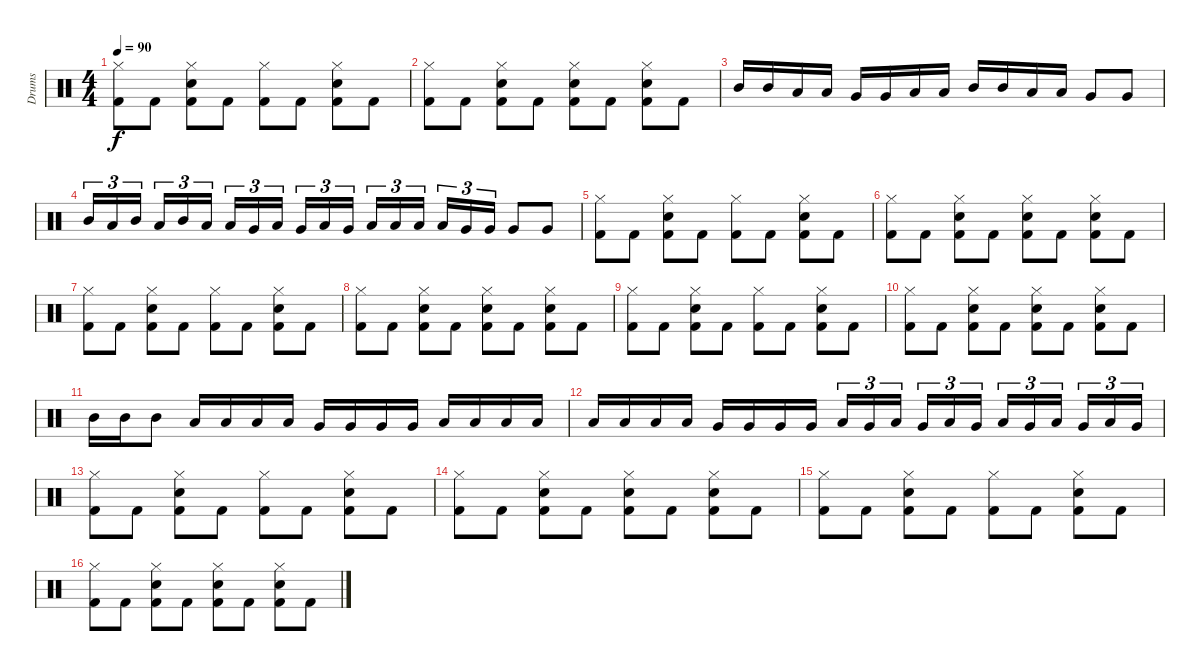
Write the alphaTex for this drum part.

\track ("Drums" "Drums") {instrument percussion}
\staff {score}
\articulation defaults
\ts (4 4)
\tempo 90
\clef neutral
\ks c
("Hi-Hat (closed)" "Kick (hit) 2").8{dy f} "Kick (hit) 2".8 ("Hi-Hat (closed)" "Kick (hit) 2" "Snare (hit) 2").8 "Kick (hit) 2".8 ("Hi-Hat (closed)" "Kick (hit) 2").8 "Kick (hit) 2".8 ("Hi-Hat (closed)" "Kick (hit) 2" "Snare (hit) 2").8 "Kick (hit) 2".8 |
("Hi-Hat (closed)" "Kick (hit) 2").8 "Kick (hit) 2".8 ("Hi-Hat (closed)" "Kick (hit) 2" "Snare (hit) 2").8 "Kick (hit) 2".8 ("Hi-Hat (closed)" "Kick (hit) 2" "Snare (hit) 2").8 "Kick (hit) 2".8 ("Hi-Hat (closed)" "Kick (hit) 2" "Snare (hit) 2").8 "Kick (hit) 2".8 |
"Mid Tom (hit)".16 "Mid Tom (hit)".16 "Low Tom (hit)".16 "Low Tom (hit)".16 "Very Low Tom (hit)".16 "Very Low Tom (hit)".16 "Low Tom (hit)".16 "Low Tom (hit)".16 "Mid Tom (hit)".16 "Mid Tom (hit)".16 "Low Tom (hit)".16 "Low Tom (hit)".16 "Very Low Tom (hit)".8 "Very Low Tom (hit)".8 |
"Mid Tom (hit)".16{tu (3 2)} "Low Tom (hit)".16{tu (3 2)} "Mid Tom (hit)".16{tu (3 2) beam splitsecondary} "Low Tom (hit)".16{tu (3 2)} "Mid Tom (hit)".16{tu (3 2)} "Low Tom (hit)".16{tu (3 2)} "Low Tom (hit)".16{tu (3 2)} "Very Low Tom (hit)".16{tu (3 2)} "Low Tom (hit)".16{tu (3 2) beam splitsecondary} "Very Low Tom (hit)".16{tu (3 2)} "Low Tom (hit)".16{tu (3 2)} "Very Low Tom (hit)".16{tu (3 2)} "Low Tom (hit)".16{tu (3 2)} "Low Tom (hit)".16{tu (3 2)} "Low Tom (hit)".16{tu (3 2) beam splitsecondary} "Low Tom (hit)".16{tu (3 2)} "Very Low Tom (hit)".16{tu (3 2)} "Very Low Tom (hit)".16{tu (3 2)} "Very Low Tom (hit)".8 "Very Low Tom (hit)".8 |
("Hi-Hat (closed)" "Kick (hit) 2").8 "Kick (hit) 2".8 ("Hi-Hat (closed)" "Kick (hit) 2" "Snare (hit) 2").8 "Kick (hit) 2".8 ("Hi-Hat (closed)" "Kick (hit) 2").8 "Kick (hit) 2".8 ("Hi-Hat (closed)" "Kick (hit) 2" "Snare (hit) 2").8 "Kick (hit) 2".8 |
("Hi-Hat (closed)" "Kick (hit) 2").8 "Kick (hit) 2".8 ("Hi-Hat (closed)" "Kick (hit) 2" "Snare (hit) 2").8 "Kick (hit) 2".8 ("Hi-Hat (closed)" "Kick (hit) 2" "Snare (hit) 2").8 "Kick (hit) 2".8 ("Hi-Hat (closed)" "Kick (hit) 2" "Snare (hit) 2").8 "Kick (hit) 2".8 |
("Hi-Hat (closed)" "Kick (hit) 2").8 "Kick (hit) 2".8 ("Hi-Hat (closed)" "Kick (hit) 2" "Snare (hit) 2").8 "Kick (hit) 2".8 ("Hi-Hat (closed)" "Kick (hit) 2").8 "Kick (hit) 2".8 ("Hi-Hat (closed)" "Kick (hit) 2" "Snare (hit) 2").8 "Kick (hit) 2".8 |
("Hi-Hat (closed)" "Kick (hit) 2").8 "Kick (hit) 2".8 ("Hi-Hat (closed)" "Kick (hit) 2" "Snare (hit) 2").8 "Kick (hit) 2".8 ("Hi-Hat (closed)" "Kick (hit) 2" "Snare (hit) 2").8 "Kick (hit) 2".8 ("Hi-Hat (closed)" "Kick (hit) 2" "Snare (hit) 2").8 "Kick (hit) 2".8 |
("Hi-Hat (closed)" "Kick (hit) 2").8 "Kick (hit) 2".8 ("Hi-Hat (closed)" "Kick (hit) 2" "Snare (hit) 2").8 "Kick (hit) 2".8 ("Hi-Hat (closed)" "Kick (hit) 2").8 "Kick (hit) 2".8 ("Hi-Hat (closed)" "Kick (hit) 2" "Snare (hit) 2").8 "Kick (hit) 2".8 |
("Hi-Hat (closed)" "Kick (hit) 2").8 "Kick (hit) 2".8 ("Hi-Hat (closed)" "Kick (hit) 2" "Snare (hit) 2").8 "Kick (hit) 2".8 ("Hi-Hat (closed)" "Kick (hit) 2" "Snare (hit) 2").8 "Kick (hit) 2".8 ("Hi-Hat (closed)" "Kick (hit) 2" "Snare (hit) 2").8 "Kick (hit) 2".8 |
"Mid Tom (hit)".16 "Mid Tom (hit)".16 "Mid Tom (hit)".8 "Low Tom (hit)".16 "Low Tom (hit)".16 "Low Tom (hit)".16 "Low Tom (hit)".16 "Very Low Tom (hit)".16 "Very Low Tom (hit)".16 "Very Low Tom (hit)".16 "Very Low Tom (hit)".16 "Low Tom (hit)".16 "Low Tom (hit)".16 "Low Tom (hit)".16 "Low Tom (hit)".16 |
"Low Tom (hit)".16 "Low Tom (hit)".16 "Low Tom (hit)".16 "Low Tom (hit)".16 "Very Low Tom (hit)".16 "Very Low Tom (hit)".16 "Very Low Tom (hit)".16 "Very Low Tom (hit)".16 "Low Tom (hit)".16{tu (3 2)} "Very Low Tom (hit)".16{tu (3 2)} "Low Tom (hit)".16{tu (3 2) beam splitsecondary} "Very Low Tom (hit)".16{tu (3 2)} "Low Tom (hit)".16{tu (3 2)} "Very Low Tom (hit)".16{tu (3 2)} "Low Tom (hit)".16{tu (3 2)} "Very Low Tom (hit)".16{tu (3 2)} "Low Tom (hit)".16{tu (3 2) beam splitsecondary} "Very Low Tom (hit)".16{tu (3 2)} "Low Tom (hit)".16{tu (3 2)} "Very Low Tom (hit)".16{tu (3 2)} |
("Hi-Hat (closed)" "Kick (hit) 2").8 "Kick (hit) 2".8 ("Hi-Hat (closed)" "Kick (hit) 2" "Snare (hit) 2").8 "Kick (hit) 2".8 ("Hi-Hat (closed)" "Kick (hit) 2").8 "Kick (hit) 2".8 ("Hi-Hat (closed)" "Kick (hit) 2" "Snare (hit) 2").8 "Kick (hit) 2".8 |
("Hi-Hat (closed)" "Kick (hit) 2").8 "Kick (hit) 2".8 ("Hi-Hat (closed)" "Kick (hit) 2" "Snare (hit) 2").8 "Kick (hit) 2".8 ("Hi-Hat (closed)" "Kick (hit) 2" "Snare (hit) 2").8 "Kick (hit) 2".8 ("Hi-Hat (closed)" "Kick (hit) 2" "Snare (hit) 2").8 "Kick (hit) 2".8 |
("Hi-Hat (closed)" "Kick (hit) 2").8 "Kick (hit) 2".8 ("Hi-Hat (closed)" "Kick (hit) 2" "Snare (hit) 2").8 "Kick (hit) 2".8 ("Hi-Hat (closed)" "Kick (hit) 2").8 "Kick (hit) 2".8 ("Hi-Hat (closed)" "Kick (hit) 2" "Snare (hit) 2").8 "Kick (hit) 2".8 |
("Hi-Hat (closed)" "Kick (hit) 2").8 "Kick (hit) 2".8 ("Hi-Hat (closed)" "Kick (hit) 2" "Snare (hit) 2").8 "Kick (hit) 2".8 ("Hi-Hat (closed)" "Kick (hit) 2" "Snare (hit) 2").8 "Kick (hit) 2".8 ("Hi-Hat (closed)" "Kick (hit) 2" "Snare (hit) 2").8 "Kick (hit) 2".8
